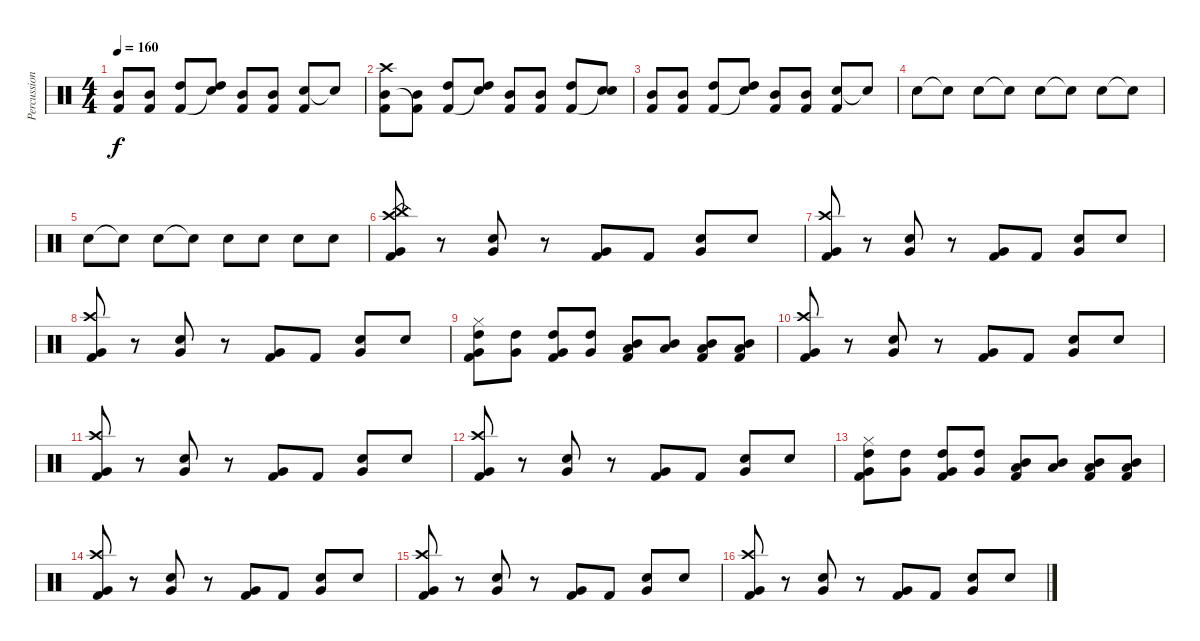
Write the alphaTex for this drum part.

\track ("Percussion" "Percussion") {instrument percussion}
\staff {score}
\articulation defaults
\ts (4 4)
\tempo 160
\clef neutral
\ks c
("Mid Tom (hit)" "Kick (hit) 2").8{dy f} ("Mid Tom (hit)" "Kick (hit) 2").8 ("High Tom (hit)" "Kick (hit) 2").8 ("High Tom (hit)" "Snare (hit)"{t}).8 ("Mid Tom (hit)" "Kick (hit) 2").8 ("Mid Tom (hit)" "Kick (hit) 2").8 ("Snare (hit) 2" "Kick (hit) 2").8 "Snare (hit)"{t}.8 |
("Crash high (hit)" "Mid Tom (hit)" "Kick (hit) 2").8 ("Mid Tom (hit)" "Kick (hit) 2"{t}).8 ("High Tom (hit)" "Kick (hit) 2").8 ("High Tom (hit)" "Snare (hit)"{t}).8 ("Mid Tom (hit)" "Kick (hit) 2").8 ("Mid Tom (hit)" "Kick (hit) 2").8 ("High Tom (hit)" "Kick (hit) 2").8 ("Snare (hit) 2" "Snare (hit)"{t}).8 |
("Mid Tom (hit)" "Kick (hit) 2").8 ("Mid Tom (hit)" "Kick (hit) 2").8 ("High Tom (hit)" "Kick (hit) 2").8 ("High Tom (hit)" "Snare (hit)"{t}).8 ("Mid Tom (hit)" "Kick (hit) 2").8 ("Mid Tom (hit)" "Kick (hit) 2").8 ("Snare (hit) 2" "Kick (hit) 2").8 "Snare (hit)"{t}.8 |
"Snare (hit) 2".8 "Snare (hit)"{t}.8 "Snare (hit) 2".8 "Snare (hit)"{t}.8 "Snare (hit) 2".8 "Snare (hit)"{t}.8 "Snare (hit) 2".8 "Snare (hit)"{t}.8 |
"Snare (hit) 2".8 "Snare (hit)"{t}.8 "Snare (hit) 2".8 "Snare (hit)"{t}.8 "Snare (hit) 2".8 "Snare (hit) 2".8 "Snare (hit) 2".8 "Snare (hit) 2".8 |
("Crash high (hit)" "China (hit)" "Very Low Tom (hit)" "Kick (hit) 2").8 r.8 ("Snare (hit) 2" "Very Low Tom (hit)").8 r.8 ("Very Low Tom (hit)" "Kick (hit) 2").8 "Kick (hit) 2".8 ("Snare (hit) 2" "Very Low Tom (hit)").8 "Snare (hit) 2".8 |
("Crash high (hit)" "Very Low Tom (hit)" "Kick (hit) 2").8 r.8 ("Snare (hit) 2" "Very Low Tom (hit)").8 r.8 ("Very Low Tom (hit)" "Kick (hit) 2").8 "Kick (hit) 2".8 ("Snare (hit) 2" "Very Low Tom (hit)").8 "Snare (hit) 2".8 |
("Crash high (hit)" "Very Low Tom (hit)" "Kick (hit) 2").8 r.8 ("Snare (hit) 2" "Very Low Tom (hit)").8 r.8 ("Very Low Tom (hit)" "Kick (hit) 2").8 "Kick (hit) 2".8 ("Snare (hit) 2" "Very Low Tom (hit)").8 "Snare (hit) 2".8 |
("Hi-Hat (closed)" "High Tom (hit)" "Very Low Tom (hit)" "Kick (hit) 2").8 ("High Tom (hit)" "Very Low Tom (hit)").8 ("High Tom (hit)" "Very Low Tom (hit)" "Kick (hit) 2").8 ("High Tom (hit)" "Very Low Tom (hit)").8 ("Mid Tom (hit)" "Low Floor Tom (hit)" "Kick (hit) 2").8 ("Mid Tom (hit)" "Low Floor Tom (hit)").8 ("Mid Tom (hit)" "Low Floor Tom (hit)" "Kick (hit) 2").8 ("Mid Tom (hit)" "Low Floor Tom (hit)" "Kick (hit) 2").8 |
("Crash high (hit)" "Very Low Tom (hit)" "Kick (hit) 2").8 r.8 ("Snare (hit) 2" "Very Low Tom (hit)").8 r.8 ("Very Low Tom (hit)" "Kick (hit) 2").8 "Kick (hit) 2".8 ("Snare (hit) 2" "Very Low Tom (hit)").8 "Snare (hit) 2".8 |
("Crash high (hit)" "Very Low Tom (hit)" "Kick (hit) 2").8 r.8 ("Snare (hit) 2" "Very Low Tom (hit)").8 r.8 ("Very Low Tom (hit)" "Kick (hit) 2").8 "Kick (hit) 2".8 ("Snare (hit) 2" "Very Low Tom (hit)").8 "Snare (hit) 2".8 |
("Crash high (hit)" "Very Low Tom (hit)" "Kick (hit) 2").8 r.8 ("Snare (hit) 2" "Very Low Tom (hit)").8 r.8 ("Very Low Tom (hit)" "Kick (hit) 2").8 "Kick (hit) 2".8 ("Snare (hit) 2" "Very Low Tom (hit)").8 "Snare (hit) 2".8 |
("Hi-Hat (closed)" "High Tom (hit)" "Very Low Tom (hit)" "Kick (hit) 2").8 ("High Tom (hit)" "Very Low Tom (hit)").8 ("High Tom (hit)" "Very Low Tom (hit)" "Kick (hit) 2").8 ("High Tom (hit)" "Very Low Tom (hit)").8 ("Mid Tom (hit)" "Low Floor Tom (hit)" "Kick (hit) 2").8 ("Mid Tom (hit)" "Low Floor Tom (hit)").8 ("Mid Tom (hit)" "Low Floor Tom (hit)" "Kick (hit) 2").8 ("Mid Tom (hit)" "Low Floor Tom (hit)" "Kick (hit) 2").8 |
("Crash high (hit)" "Very Low Tom (hit)" "Kick (hit) 2").8 r.8 ("Snare (hit) 2" "Very Low Tom (hit)").8 r.8 ("Very Low Tom (hit)" "Kick (hit) 2").8 "Kick (hit) 2".8 ("Snare (hit) 2" "Very Low Tom (hit)").8 "Snare (hit) 2".8 |
("Crash high (hit)" "Very Low Tom (hit)" "Kick (hit) 2").8 r.8 ("Snare (hit) 2" "Very Low Tom (hit)").8 r.8 ("Very Low Tom (hit)" "Kick (hit) 2").8 "Kick (hit) 2".8 ("Snare (hit) 2" "Very Low Tom (hit)").8 "Snare (hit) 2".8 |
("Crash high (hit)" "Very Low Tom (hit)" "Kick (hit) 2").8 r.8 ("Snare (hit) 2" "Very Low Tom (hit)").8 r.8 ("Very Low Tom (hit)" "Kick (hit) 2").8 "Kick (hit) 2".8 ("Snare (hit) 2" "Very Low Tom (hit)").8 "Snare (hit) 2".8
